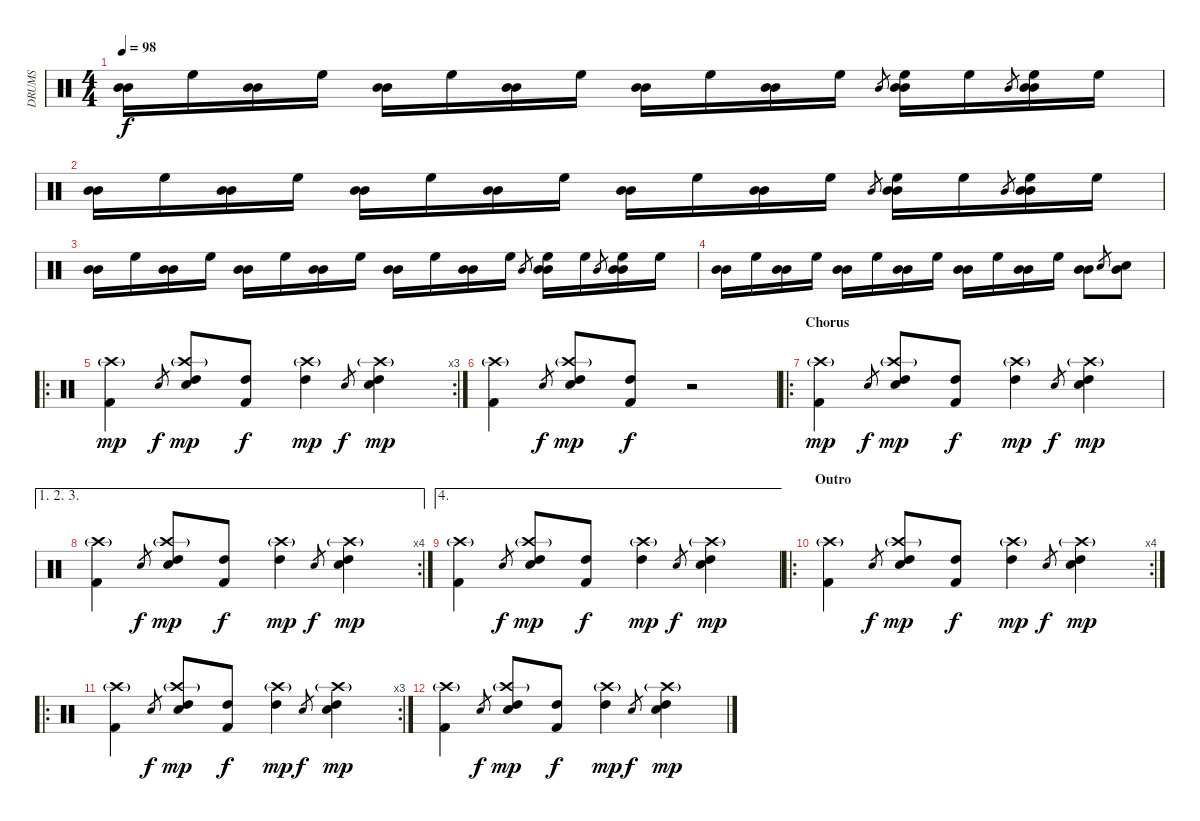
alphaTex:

\track ("DRUMS" "DRUMS") {instrument percussion}
\staff {score}
\articulation defaults
\ts (4 4)
\tempo 98
\clef neutral
\ks c
("Mid Tom (hit)" "Mid Tom (hit)").16{dy f} "High Floor Tom (hit)".16 ("Mid Tom (hit)" "Mid Tom (hit)").16 "High Floor Tom (hit)".16 ("Mid Tom (hit)" "Mid Tom (hit)").16 "High Floor Tom (hit)".16 ("Mid Tom (hit)" "Mid Tom (hit)").16 "High Floor Tom (hit)".16 ("Mid Tom (hit)" "Mid Tom (hit)").16 "High Floor Tom (hit)".16 ("Mid Tom (hit)" "Mid Tom (hit)").16 "High Floor Tom (hit)".16 "Mid Tom (hit)".8{gr} ("Mid Tom (hit)" "Mid Tom (hit)" "High Floor Tom (hit)").16 "High Floor Tom (hit)".16 "Mid Tom (hit)".8{gr} ("Mid Tom (hit)" "Mid Tom (hit)" "High Floor Tom (hit)").16 "High Floor Tom (hit)".16 |
("Mid Tom (hit)" "Mid Tom (hit)").16 "High Floor Tom (hit)".16 ("Mid Tom (hit)" "Mid Tom (hit)").16 "High Floor Tom (hit)".16 ("Mid Tom (hit)" "Mid Tom (hit)").16 "High Floor Tom (hit)".16 ("Mid Tom (hit)" "Mid Tom (hit)").16 "High Floor Tom (hit)".16 ("Mid Tom (hit)" "Mid Tom (hit)").16 "High Floor Tom (hit)".16 ("Mid Tom (hit)" "Mid Tom (hit)").16 "High Floor Tom (hit)".16 "Mid Tom (hit)".8{gr} ("Mid Tom (hit)" "Mid Tom (hit)" "High Floor Tom (hit)").16 "High Floor Tom (hit)".16 "Mid Tom (hit)".8{gr} ("Mid Tom (hit)" "Mid Tom (hit)" "High Floor Tom (hit)").16 "High Floor Tom (hit)".16 |
("Mid Tom (hit)" "Mid Tom (hit)").16 "High Floor Tom (hit)".16 ("Mid Tom (hit)" "Mid Tom (hit)").16 "High Floor Tom (hit)".16 ("Mid Tom (hit)" "Mid Tom (hit)").16 "High Floor Tom (hit)".16 ("Mid Tom (hit)" "Mid Tom (hit)").16 "High Floor Tom (hit)".16 ("Mid Tom (hit)" "Mid Tom (hit)").16 "High Floor Tom (hit)".16 ("Mid Tom (hit)" "Mid Tom (hit)").16 "High Floor Tom (hit)".16 "Mid Tom (hit)".8{gr} ("Mid Tom (hit)" "Mid Tom (hit)" "High Floor Tom (hit)").16 "High Floor Tom (hit)".16 "Mid Tom (hit)".8{gr} ("Mid Tom (hit)" "Mid Tom (hit)" "High Floor Tom (hit)").16 "High Floor Tom (hit)".16 |
("Mid Tom (hit)" "Mid Tom (hit)").16 "High Floor Tom (hit)".16 ("Mid Tom (hit)" "Mid Tom (hit)").16 "High Floor Tom (hit)".16 ("Mid Tom (hit)" "Mid Tom (hit)").16 "High Floor Tom (hit)".16 ("Mid Tom (hit)" "Mid Tom (hit)").16 "High Floor Tom (hit)".16 ("Mid Tom (hit)" "Mid Tom (hit)").16 "High Floor Tom (hit)".16 ("Mid Tom (hit)" "Mid Tom (hit)").16 "High Floor Tom (hit)".16 ("Mid Tom (hit)" "Mid Tom (hit)").8 "Electric Snare (hit)".8{gr} ("Mid Tom (hit)" "Electric Snare (hit)").8 |
\ro
\rc 3
("Kick (hit) 2" "Crash high (hit)"{g}).4{dy mp} "Electric Snare (hit)".8{gr dy f} ("High Tom (hit)" "Electric Snare (hit)" "Crash high (hit)"{g}).8{dy mp} ("Kick (hit) 2" "High Tom (hit)").8{dy f} ("High Tom (hit)" "Crash high (hit)"{g}).4{dy mp} "Electric Snare (hit)".8{gr dy f} ("High Tom (hit)" "Electric Snare (hit)" "Crash high (hit)"{g}).4{dy mp} |
("Kick (hit) 2" "Crash high (hit)"{g}).4 "Electric Snare (hit)".8{gr dy f} ("High Tom (hit)" "Electric Snare (hit)" "Crash high (hit)"{g}).8{dy mp} ("Kick (hit) 2" "High Tom (hit)").8{dy f} r.2 |
\ro
\section ("" "Chorus")
("Kick (hit) 2" "Crash high (hit)"{g}).4{dy mp} "Electric Snare (hit)".8{gr dy f} ("High Tom (hit)" "Electric Snare (hit)" "Crash high (hit)"{g}).8{dy mp} ("Kick (hit) 2" "High Tom (hit)").8{dy f} ("High Tom (hit)" "Crash high (hit)"{g}).4{dy mp} "Electric Snare (hit)".8{gr dy f} ("High Tom (hit)" "Electric Snare (hit)" "Crash high (hit)"{g}).4{dy mp} |
\ae (1 2 3)
\rc 4
("Kick (hit) 2" "Crash high (hit)"{g}).4 "Electric Snare (hit)".8{gr dy f} ("High Tom (hit)" "Electric Snare (hit)" "Crash high (hit)"{g}).8{dy mp} ("Kick (hit) 2" "High Tom (hit)").8{dy f} ("High Tom (hit)" "Crash high (hit)"{g}).4{dy mp} "Electric Snare (hit)".8{gr dy f} ("High Tom (hit)" "Electric Snare (hit)" "Crash high (hit)"{g}).4{dy mp} |
\ae 4
("Kick (hit) 2" "Crash high (hit)"{g}).4 "Electric Snare (hit)".8{gr dy f} ("High Tom (hit)" "Electric Snare (hit)" "Crash high (hit)"{g}).8{dy mp} ("Kick (hit) 2" "High Tom (hit)").8{dy f} ("High Tom (hit)" "Crash high (hit)"{g}).4{dy mp} "Electric Snare (hit)".8{gr dy f} ("High Tom (hit)" "Electric Snare (hit)" "Crash high (hit)"{g}).4{dy mp} |
\ro
\rc 4
\section ("" "Outro")
("Kick (hit) 2" "Crash high (hit)"{g}).4 "Electric Snare (hit)".8{gr dy f} ("High Tom (hit)" "Electric Snare (hit)" "Crash high (hit)"{g}).8{dy mp} ("Kick (hit) 2" "High Tom (hit)").8{dy f} ("High Tom (hit)" "Crash high (hit)"{g}).4{dy mp} "Electric Snare (hit)".8{gr dy f} ("High Tom (hit)" "Electric Snare (hit)" "Crash high (hit)"{g}).4{dy mp} |
\ro
\rc 3
("Kick (hit) 2" "Crash high (hit)"{g}).4 "Electric Snare (hit)".8{gr dy f} ("High Tom (hit)" "Electric Snare (hit)" "Crash high (hit)"{g}).8{dy mp} ("Kick (hit) 2" "High Tom (hit)").8{dy f} ("High Tom (hit)" "Crash high (hit)"{g}).4{dy mp} "Electric Snare (hit)".8{gr dy f} ("High Tom (hit)" "Electric Snare (hit)" "Crash high (hit)"{g}).4{dy mp} |
("Kick (hit) 2" "Crash high (hit)"{g}).4 "Electric Snare (hit)".8{gr dy f} ("High Tom (hit)" "Electric Snare (hit)" "Crash high (hit)"{g}).8{dy mp} ("Kick (hit) 2" "High Tom (hit)").8{dy f} ("High Tom (hit)" "Crash high (hit)"{g}).4{dy mp} "Electric Snare (hit)".8{gr dy f} ("High Tom (hit)" "Electric Snare (hit)" "Crash high (hit)"{g}).4{dy mp}
